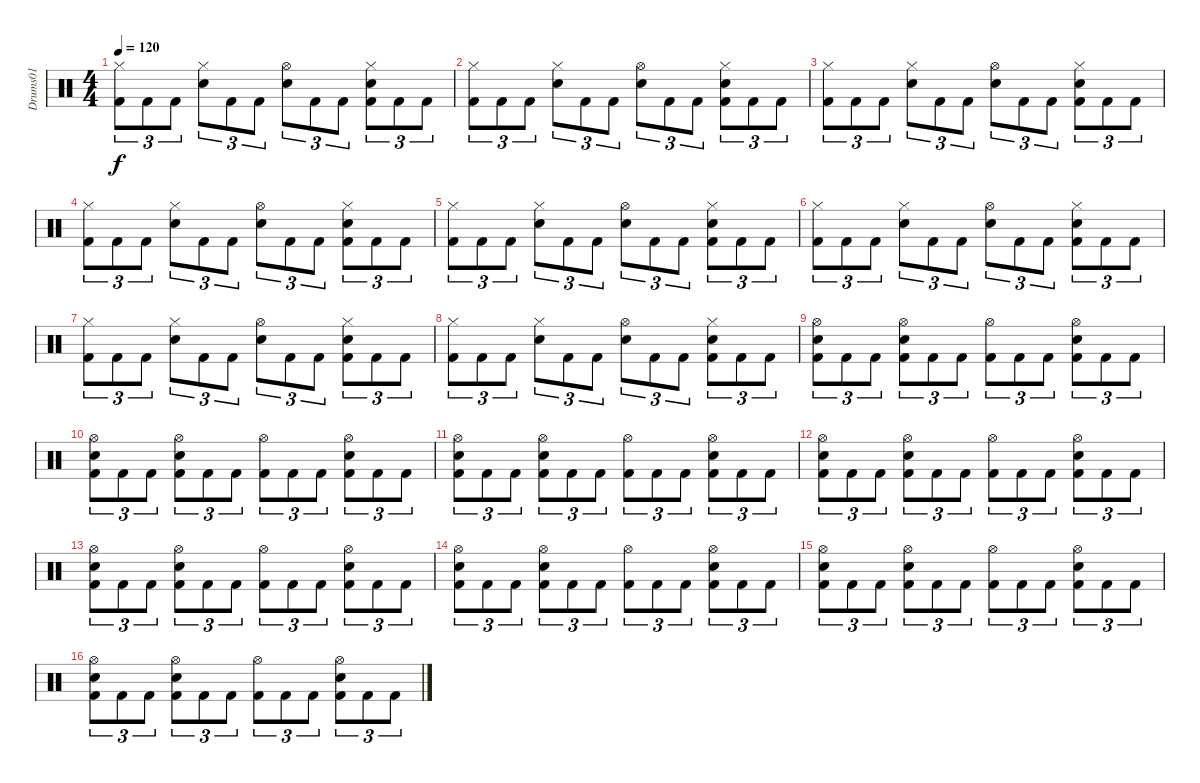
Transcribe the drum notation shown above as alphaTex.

\track ("Drums01" "Drums01") {instrument percussion}
\staff {score}
\articulation defaults
\ts (4 4)
\tempo 120
\clef neutral
\ks c
("Hi-Hat (closed)" "Kick (hit) 2").8{tu (3 2) dy f} "Kick (hit) 2".8{tu (3 2)} "Kick (hit) 2".8{tu (3 2)} ("Hi-Hat (closed)" "Snare (hit) 2").8{tu (3 2)} "Kick (hit) 2".8{tu (3 2)} "Kick (hit) 2".8{tu (3 2)} ("Hi-Hat (open)" "Snare (hit) 2").8{tu (3 2)} "Kick (hit) 2".8{tu (3 2)} "Kick (hit) 2".8{tu (3 2)} ("Hi-Hat (closed)" "Snare (hit) 2" "Kick (hit) 2").8{tu (3 2)} "Kick (hit) 2".8{tu (3 2)} "Kick (hit) 2".8{tu (3 2)} |
("Hi-Hat (closed)" "Kick (hit) 2").8{tu (3 2)} "Kick (hit) 2".8{tu (3 2)} "Kick (hit) 2".8{tu (3 2)} ("Hi-Hat (closed)" "Snare (hit) 2").8{tu (3 2)} "Kick (hit) 2".8{tu (3 2)} "Kick (hit) 2".8{tu (3 2)} ("Hi-Hat (open)" "Snare (hit) 2").8{tu (3 2)} "Kick (hit) 2".8{tu (3 2)} "Kick (hit) 2".8{tu (3 2)} ("Hi-Hat (closed)" "Snare (hit) 2" "Kick (hit) 2").8{tu (3 2)} "Kick (hit) 2".8{tu (3 2)} "Kick (hit) 2".8{tu (3 2)} |
("Hi-Hat (closed)" "Kick (hit) 2").8{tu (3 2)} "Kick (hit) 2".8{tu (3 2)} "Kick (hit) 2".8{tu (3 2)} ("Hi-Hat (closed)" "Snare (hit) 2").8{tu (3 2)} "Kick (hit) 2".8{tu (3 2)} "Kick (hit) 2".8{tu (3 2)} ("Hi-Hat (open)" "Snare (hit) 2").8{tu (3 2)} "Kick (hit) 2".8{tu (3 2)} "Kick (hit) 2".8{tu (3 2)} ("Hi-Hat (closed)" "Snare (hit) 2" "Kick (hit) 2").8{tu (3 2)} "Kick (hit) 2".8{tu (3 2)} "Kick (hit) 2".8{tu (3 2)} |
("Hi-Hat (closed)" "Kick (hit) 2").8{tu (3 2)} "Kick (hit) 2".8{tu (3 2)} "Kick (hit) 2".8{tu (3 2)} ("Hi-Hat (closed)" "Snare (hit) 2").8{tu (3 2)} "Kick (hit) 2".8{tu (3 2)} "Kick (hit) 2".8{tu (3 2)} ("Hi-Hat (open)" "Snare (hit) 2").8{tu (3 2)} "Kick (hit) 2".8{tu (3 2)} "Kick (hit) 2".8{tu (3 2)} ("Hi-Hat (closed)" "Snare (hit) 2" "Kick (hit) 2").8{tu (3 2)} "Kick (hit) 2".8{tu (3 2)} "Kick (hit) 2".8{tu (3 2)} |
("Hi-Hat (closed)" "Kick (hit) 2").8{tu (3 2)} "Kick (hit) 2".8{tu (3 2)} "Kick (hit) 2".8{tu (3 2)} ("Hi-Hat (closed)" "Snare (hit) 2").8{tu (3 2)} "Kick (hit) 2".8{tu (3 2)} "Kick (hit) 2".8{tu (3 2)} ("Hi-Hat (open)" "Snare (hit) 2").8{tu (3 2)} "Kick (hit) 2".8{tu (3 2)} "Kick (hit) 2".8{tu (3 2)} ("Hi-Hat (closed)" "Snare (hit) 2" "Kick (hit) 2").8{tu (3 2)} "Kick (hit) 2".8{tu (3 2)} "Kick (hit) 2".8{tu (3 2)} |
("Hi-Hat (closed)" "Kick (hit) 2").8{tu (3 2)} "Kick (hit) 2".8{tu (3 2)} "Kick (hit) 2".8{tu (3 2)} ("Hi-Hat (closed)" "Snare (hit) 2").8{tu (3 2)} "Kick (hit) 2".8{tu (3 2)} "Kick (hit) 2".8{tu (3 2)} ("Hi-Hat (open)" "Snare (hit) 2").8{tu (3 2)} "Kick (hit) 2".8{tu (3 2)} "Kick (hit) 2".8{tu (3 2)} ("Hi-Hat (closed)" "Snare (hit) 2" "Kick (hit) 2").8{tu (3 2)} "Kick (hit) 2".8{tu (3 2)} "Kick (hit) 2".8{tu (3 2)} |
("Hi-Hat (closed)" "Kick (hit) 2").8{tu (3 2)} "Kick (hit) 2".8{tu (3 2)} "Kick (hit) 2".8{tu (3 2)} ("Hi-Hat (closed)" "Snare (hit) 2").8{tu (3 2)} "Kick (hit) 2".8{tu (3 2)} "Kick (hit) 2".8{tu (3 2)} ("Hi-Hat (open)" "Snare (hit) 2").8{tu (3 2)} "Kick (hit) 2".8{tu (3 2)} "Kick (hit) 2".8{tu (3 2)} ("Hi-Hat (closed)" "Snare (hit) 2" "Kick (hit) 2").8{tu (3 2)} "Kick (hit) 2".8{tu (3 2)} "Kick (hit) 2".8{tu (3 2)} |
("Hi-Hat (closed)" "Kick (hit) 2").8{tu (3 2)} "Kick (hit) 2".8{tu (3 2)} "Kick (hit) 2".8{tu (3 2)} ("Hi-Hat (closed)" "Snare (hit) 2").8{tu (3 2)} "Kick (hit) 2".8{tu (3 2)} "Kick (hit) 2".8{tu (3 2)} ("Hi-Hat (open)" "Snare (hit) 2").8{tu (3 2)} "Kick (hit) 2".8{tu (3 2)} "Kick (hit) 2".8{tu (3 2)} ("Hi-Hat (closed)" "Snare (hit) 2" "Kick (hit) 2").8{tu (3 2)} "Kick (hit) 2".8{tu (3 2)} "Kick (hit) 2".8{tu (3 2)} |
("Hi-Hat (open)" "Snare (hit) 2" "Kick (hit) 2").8{tu (3 2)} "Kick (hit) 2".8{tu (3 2)} "Kick (hit) 2".8{tu (3 2)} ("Hi-Hat (open)" "Snare (hit) 2" "Kick (hit) 2").8{tu (3 2)} "Kick (hit) 2".8{tu (3 2)} "Kick (hit) 2".8{tu (3 2)} ("Hi-Hat (open)" "Kick (hit) 2").8{tu (3 2)} "Kick (hit) 2".8{tu (3 2)} "Kick (hit) 2".8{tu (3 2)} ("Hi-Hat (open)" "Snare (hit) 2" "Kick (hit) 2").8{tu (3 2)} "Kick (hit) 2".8{tu (3 2)} "Kick (hit) 2".8{tu (3 2)} |
("Hi-Hat (open)" "Snare (hit) 2" "Kick (hit) 2").8{tu (3 2)} "Kick (hit) 2".8{tu (3 2)} "Kick (hit) 2".8{tu (3 2)} ("Hi-Hat (open)" "Snare (hit) 2" "Kick (hit) 2").8{tu (3 2)} "Kick (hit) 2".8{tu (3 2)} "Kick (hit) 2".8{tu (3 2)} ("Hi-Hat (open)" "Kick (hit) 2").8{tu (3 2)} "Kick (hit) 2".8{tu (3 2)} "Kick (hit) 2".8{tu (3 2)} ("Hi-Hat (open)" "Snare (hit) 2" "Kick (hit) 2").8{tu (3 2)} "Kick (hit) 2".8{tu (3 2)} "Kick (hit) 2".8{tu (3 2)} |
("Hi-Hat (open)" "Snare (hit) 2" "Kick (hit) 2").8{tu (3 2)} "Kick (hit) 2".8{tu (3 2)} "Kick (hit) 2".8{tu (3 2)} ("Hi-Hat (open)" "Snare (hit) 2" "Kick (hit) 2").8{tu (3 2)} "Kick (hit) 2".8{tu (3 2)} "Kick (hit) 2".8{tu (3 2)} ("Hi-Hat (open)" "Kick (hit) 2").8{tu (3 2)} "Kick (hit) 2".8{tu (3 2)} "Kick (hit) 2".8{tu (3 2)} ("Hi-Hat (open)" "Snare (hit) 2" "Kick (hit) 2").8{tu (3 2)} "Kick (hit) 2".8{tu (3 2)} "Kick (hit) 2".8{tu (3 2)} |
("Hi-Hat (open)" "Snare (hit) 2" "Kick (hit) 2").8{tu (3 2)} "Kick (hit) 2".8{tu (3 2)} "Kick (hit) 2".8{tu (3 2)} ("Hi-Hat (open)" "Snare (hit) 2" "Kick (hit) 2").8{tu (3 2)} "Kick (hit) 2".8{tu (3 2)} "Kick (hit) 2".8{tu (3 2)} ("Hi-Hat (open)" "Kick (hit) 2").8{tu (3 2)} "Kick (hit) 2".8{tu (3 2)} "Kick (hit) 2".8{tu (3 2)} ("Hi-Hat (open)" "Snare (hit) 2" "Kick (hit) 2").8{tu (3 2)} "Kick (hit) 2".8{tu (3 2)} "Kick (hit) 2".8{tu (3 2)} |
("Hi-Hat (open)" "Snare (hit) 2" "Kick (hit) 2").8{tu (3 2)} "Kick (hit) 2".8{tu (3 2)} "Kick (hit) 2".8{tu (3 2)} ("Hi-Hat (open)" "Snare (hit) 2" "Kick (hit) 2").8{tu (3 2)} "Kick (hit) 2".8{tu (3 2)} "Kick (hit) 2".8{tu (3 2)} ("Hi-Hat (open)" "Kick (hit) 2").8{tu (3 2)} "Kick (hit) 2".8{tu (3 2)} "Kick (hit) 2".8{tu (3 2)} ("Hi-Hat (open)" "Snare (hit) 2" "Kick (hit) 2").8{tu (3 2)} "Kick (hit) 2".8{tu (3 2)} "Kick (hit) 2".8{tu (3 2)} |
("Hi-Hat (open)" "Snare (hit) 2" "Kick (hit) 2").8{tu (3 2)} "Kick (hit) 2".8{tu (3 2)} "Kick (hit) 2".8{tu (3 2)} ("Hi-Hat (open)" "Snare (hit) 2" "Kick (hit) 2").8{tu (3 2)} "Kick (hit) 2".8{tu (3 2)} "Kick (hit) 2".8{tu (3 2)} ("Hi-Hat (open)" "Kick (hit) 2").8{tu (3 2)} "Kick (hit) 2".8{tu (3 2)} "Kick (hit) 2".8{tu (3 2)} ("Hi-Hat (open)" "Snare (hit) 2" "Kick (hit) 2").8{tu (3 2)} "Kick (hit) 2".8{tu (3 2)} "Kick (hit) 2".8{tu (3 2)} |
("Hi-Hat (open)" "Snare (hit) 2" "Kick (hit) 2").8{tu (3 2)} "Kick (hit) 2".8{tu (3 2)} "Kick (hit) 2".8{tu (3 2)} ("Hi-Hat (open)" "Snare (hit) 2" "Kick (hit) 2").8{tu (3 2)} "Kick (hit) 2".8{tu (3 2)} "Kick (hit) 2".8{tu (3 2)} ("Hi-Hat (open)" "Kick (hit) 2").8{tu (3 2)} "Kick (hit) 2".8{tu (3 2)} "Kick (hit) 2".8{tu (3 2)} ("Hi-Hat (open)" "Snare (hit) 2" "Kick (hit) 2").8{tu (3 2)} "Kick (hit) 2".8{tu (3 2)} "Kick (hit) 2".8{tu (3 2)} |
("Hi-Hat (open)" "Snare (hit) 2" "Kick (hit) 2").8{tu (3 2)} "Kick (hit) 2".8{tu (3 2)} "Kick (hit) 2".8{tu (3 2)} ("Hi-Hat (open)" "Snare (hit) 2" "Kick (hit) 2").8{tu (3 2)} "Kick (hit) 2".8{tu (3 2)} "Kick (hit) 2".8{tu (3 2)} ("Hi-Hat (open)" "Kick (hit) 2").8{tu (3 2)} "Kick (hit) 2".8{tu (3 2)} "Kick (hit) 2".8{tu (3 2)} ("Hi-Hat (open)" "Snare (hit) 2" "Kick (hit) 2").8{tu (3 2)} "Kick (hit) 2".8{tu (3 2)} "Kick (hit) 2".8{tu (3 2)}
